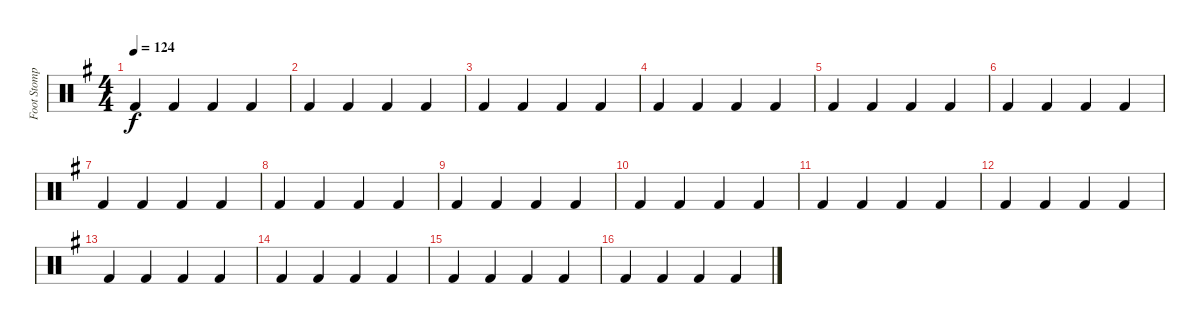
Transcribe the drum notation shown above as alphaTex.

\track ("Foot Stomp" "Foot Stomp") {instrument percussion}
\staff {score}
\articulation defaults
\ts (4 4)
\tempo 124
\clef neutral
\ks eminor "Kick (hit) 2".4{dy f} "Kick (hit) 2".4 "Kick (hit) 2".4 "Kick (hit) 2".4
|
"Kick (hit) 2".4 "Kick (hit) 2".4 "Kick (hit) 2".4 "Kick (hit) 2".4 |
"Kick (hit) 2".4 "Kick (hit) 2".4 "Kick (hit) 2".4 "Kick (hit) 2".4 |
"Kick (hit) 2".4 "Kick (hit) 2".4 "Kick (hit) 2".4 "Kick (hit) 2".4 |
"Kick (hit) 2".4 "Kick (hit) 2".4 "Kick (hit) 2".4 "Kick (hit) 2".4 |
"Kick (hit) 2".4 "Kick (hit) 2".4 "Kick (hit) 2".4 "Kick (hit) 2".4 |
"Kick (hit) 2".4 "Kick (hit) 2".4 "Kick (hit) 2".4 "Kick (hit) 2".4 |
"Kick (hit) 2".4 "Kick (hit) 2".4 "Kick (hit) 2".4 "Kick (hit) 2".4 |
"Kick (hit) 2".4 "Kick (hit) 2".4 "Kick (hit) 2".4 "Kick (hit) 2".4 |
"Kick (hit) 2".4 "Kick (hit) 2".4 "Kick (hit) 2".4 "Kick (hit) 2".4 |
"Kick (hit) 2".4 "Kick (hit) 2".4 "Kick (hit) 2".4 "Kick (hit) 2".4 |
"Kick (hit) 2".4 "Kick (hit) 2".4 "Kick (hit) 2".4 "Kick (hit) 2".4 |
"Kick (hit) 2".4 "Kick (hit) 2".4 "Kick (hit) 2".4 "Kick (hit) 2".4 |
"Kick (hit) 2".4 "Kick (hit) 2".4 "Kick (hit) 2".4 "Kick (hit) 2".4 |
"Kick (hit) 2".4 "Kick (hit) 2".4 "Kick (hit) 2".4 "Kick (hit) 2".4 |
"Kick (hit) 2".4 "Kick (hit) 2".4 "Kick (hit) 2".4 "Kick (hit) 2".4
